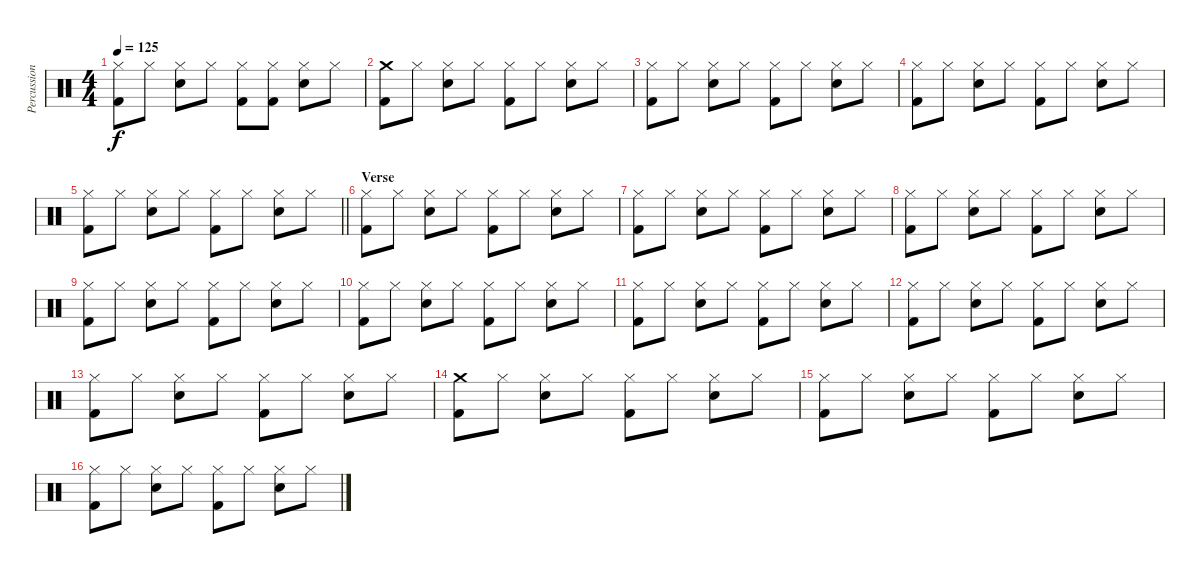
\track ("Percussion" "Percussion") {instrument percussion}
\staff {score}
\articulation defaults
\ts (4 4)
\tempo 125
\clef neutral
\ks c
("Hi-Hat (closed)" "Kick (hit) 2").8{dy f} "Hi-Hat (closed)".8 ("Hi-Hat (closed)" "Snare (hit) 2").8 "Hi-Hat (closed)".8 ("Hi-Hat (closed)" "Kick (hit) 2").8 ("Hi-Hat (closed)" "Kick (hit) 2").8 ("Hi-Hat (closed)" "Snare (hit) 2").8 "Hi-Hat (closed)".8 |
("Crash medium (hit)" "Kick (hit) 2").8 "Hi-Hat (closed)".8 ("Hi-Hat (closed)" "Snare (hit) 2").8 "Hi-Hat (closed)".8 ("Hi-Hat (closed)" "Kick (hit) 2").8 "Hi-Hat (closed)".8 ("Hi-Hat (closed)" "Snare (hit) 2").8 "Hi-Hat (closed)".8 |
("Hi-Hat (closed)" "Kick (hit) 2").8 "Hi-Hat (closed)".8 ("Hi-Hat (closed)" "Snare (hit) 2").8 "Hi-Hat (closed)".8 ("Hi-Hat (closed)" "Kick (hit) 2").8 "Hi-Hat (closed)".8 ("Hi-Hat (closed)" "Snare (hit) 2").8 "Hi-Hat (closed)".8 |
("Hi-Hat (closed)" "Kick (hit) 2").8 "Hi-Hat (closed)".8 ("Hi-Hat (closed)" "Snare (hit) 2").8 "Hi-Hat (closed)".8 ("Hi-Hat (closed)" "Kick (hit) 2").8 "Hi-Hat (closed)".8 ("Hi-Hat (closed)" "Snare (hit) 2").8 "Hi-Hat (closed)".8 |
\barLineRight lightlight
("Hi-Hat (closed)" "Kick (hit) 2").8 "Hi-Hat (closed)".8 ("Hi-Hat (closed)" "Snare (hit) 2").8 "Hi-Hat (closed)".8 ("Hi-Hat (closed)" "Kick (hit) 2").8 "Hi-Hat (closed)".8 ("Hi-Hat (closed)" "Snare (hit) 2").8 "Hi-Hat (closed)".8 |
\section ("" "Verse")
("Hi-Hat (closed)" "Kick (hit) 2").8 "Hi-Hat (closed)".8 ("Hi-Hat (closed)" "Snare (hit) 2").8 "Hi-Hat (closed)".8 ("Hi-Hat (closed)" "Kick (hit) 2").8 "Hi-Hat (closed)".8 ("Hi-Hat (closed)" "Snare (hit) 2").8 "Hi-Hat (closed)".8 |
("Hi-Hat (closed)" "Kick (hit) 2").8 "Hi-Hat (closed)".8 ("Hi-Hat (closed)" "Snare (hit) 2").8 "Hi-Hat (closed)".8 ("Hi-Hat (closed)" "Kick (hit) 2").8 "Hi-Hat (closed)".8 ("Hi-Hat (closed)" "Snare (hit) 2").8 "Hi-Hat (closed)".8 |
("Hi-Hat (closed)" "Kick (hit) 2").8 "Hi-Hat (closed)".8 ("Hi-Hat (closed)" "Snare (hit) 2").8 "Hi-Hat (closed)".8 ("Hi-Hat (closed)" "Kick (hit) 2").8 "Hi-Hat (closed)".8 ("Hi-Hat (closed)" "Snare (hit) 2").8 "Hi-Hat (closed)".8 |
("Hi-Hat (closed)" "Kick (hit) 2").8 "Hi-Hat (closed)".8 ("Hi-Hat (closed)" "Snare (hit) 2").8 "Hi-Hat (closed)".8 ("Hi-Hat (closed)" "Kick (hit) 2").8 "Hi-Hat (closed)".8 ("Hi-Hat (closed)" "Snare (hit) 2").8 "Hi-Hat (closed)".8 |
("Hi-Hat (closed)" "Kick (hit) 2").8 "Hi-Hat (closed)".8 ("Hi-Hat (closed)" "Snare (hit) 2").8 "Hi-Hat (closed)".8 ("Hi-Hat (closed)" "Kick (hit) 2").8 "Hi-Hat (closed)".8 ("Hi-Hat (closed)" "Snare (hit) 2").8 "Hi-Hat (closed)".8 |
("Hi-Hat (closed)" "Kick (hit) 2").8 "Hi-Hat (closed)".8 ("Hi-Hat (closed)" "Snare (hit) 2").8 "Hi-Hat (closed)".8 ("Hi-Hat (closed)" "Kick (hit) 2").8 "Hi-Hat (closed)".8 ("Hi-Hat (closed)" "Snare (hit) 2").8 "Hi-Hat (closed)".8 |
("Hi-Hat (closed)" "Kick (hit) 2").8 "Hi-Hat (closed)".8 ("Hi-Hat (closed)" "Snare (hit) 2").8 "Hi-Hat (closed)".8 ("Hi-Hat (closed)" "Kick (hit) 2").8 "Hi-Hat (closed)".8 ("Hi-Hat (closed)" "Snare (hit) 2").8 "Hi-Hat (closed)".8 |
("Hi-Hat (closed)" "Kick (hit) 2").8 "Hi-Hat (closed)".8 ("Hi-Hat (closed)" "Snare (hit) 2").8 "Hi-Hat (closed)".8 ("Hi-Hat (closed)" "Kick (hit) 2").8 "Hi-Hat (closed)".8 ("Hi-Hat (closed)" "Snare (hit) 2").8 "Hi-Hat (closed)".8 |
("Crash medium (hit)" "Kick (hit) 2").8 "Hi-Hat (closed)".8 ("Hi-Hat (closed)" "Snare (hit) 2").8 "Hi-Hat (closed)".8 ("Hi-Hat (closed)" "Kick (hit) 2").8 "Hi-Hat (closed)".8 ("Hi-Hat (closed)" "Snare (hit) 2").8 "Hi-Hat (closed)".8 |
("Hi-Hat (closed)" "Kick (hit) 2").8 "Hi-Hat (closed)".8 ("Hi-Hat (closed)" "Snare (hit) 2").8 "Hi-Hat (closed)".8 ("Hi-Hat (closed)" "Kick (hit) 2").8 "Hi-Hat (closed)".8 ("Hi-Hat (closed)" "Snare (hit) 2").8 "Hi-Hat (closed)".8 |
("Hi-Hat (closed)" "Kick (hit) 2").8 "Hi-Hat (closed)".8 ("Hi-Hat (closed)" "Snare (hit) 2").8 "Hi-Hat (closed)".8 ("Hi-Hat (closed)" "Kick (hit) 2").8 "Hi-Hat (closed)".8 ("Hi-Hat (closed)" "Snare (hit) 2").8 "Hi-Hat (closed)".8
